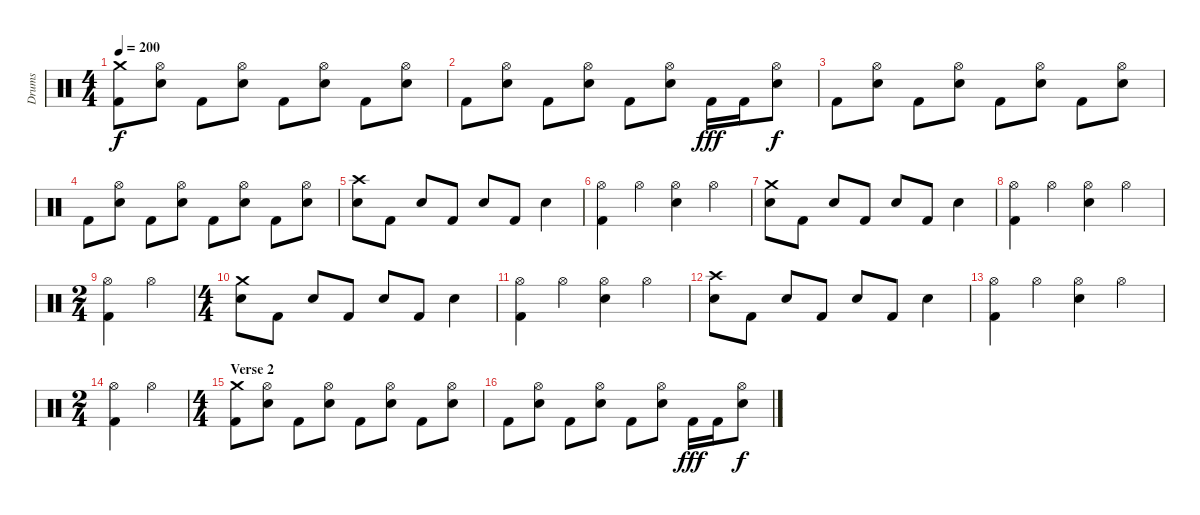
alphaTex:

\track ("Drums" "Drums") {instrument percussion}
\staff {score}
\articulation defaults
\ts (4 4)
\tempo 200
\clef neutral
\ks c
("Crash medium (hit)" "Kick (hit) 2").8{dy f} ("Hi-Hat (open)" "Snare (hit) 2").8 "Kick (hit) 2".8 ("Hi-Hat (open)" "Snare (hit) 2").8 "Kick (hit) 2".8 ("Hi-Hat (open)" "Snare (hit) 2").8 "Kick (hit) 2".8 ("Hi-Hat (open)" "Snare (hit) 2").8 |
"Kick (hit) 2".8 ("Hi-Hat (open)" "Snare (hit) 2").8 "Kick (hit) 2".8 ("Hi-Hat (open)" "Snare (hit) 2").8 "Kick (hit) 2".8 ("Hi-Hat (open)" "Snare (hit) 2").8 "Kick (hit) 2".16{dy fff} "Kick (hit) 2".16 ("Hi-Hat (open)" "Snare (hit) 2").8{dy f} |
"Kick (hit) 2".8 ("Hi-Hat (open)" "Snare (hit) 2").8 "Kick (hit) 2".8 ("Hi-Hat (open)" "Snare (hit) 2").8 "Kick (hit) 2".8 ("Hi-Hat (open)" "Snare (hit) 2").8 "Kick (hit) 2".8 ("Hi-Hat (open)" "Snare (hit) 2").8 |
"Kick (hit) 2".8 ("Hi-Hat (open)" "Snare (hit) 2").8 "Kick (hit) 2".8 ("Hi-Hat (open)" "Snare (hit) 2").8 "Kick (hit) 2".8 ("Hi-Hat (open)" "Snare (hit) 2").8 "Kick (hit) 2".8 ("Hi-Hat (open)" "Snare (hit) 2").8 |
("Crash high (hit)" "Snare (hit) 2").8 "Kick (hit) 2".8 "Snare (hit) 2".8 "Kick (hit) 2".8 "Snare (hit) 2".8 "Kick (hit) 2".8 "Snare (hit) 2".4 |
("Hi-Hat (open)" "Kick (hit) 2").4 "Hi-Hat (open)".4 ("Hi-Hat (open)" "Snare (hit) 2").4 "Hi-Hat (open)".4 |
("Crash medium (hit)" "Snare (hit) 2").8 "Kick (hit) 2".8 "Snare (hit) 2".8 "Kick (hit) 2".8 "Snare (hit) 2".8 "Kick (hit) 2".8 "Snare (hit) 2".4 |
("Hi-Hat (open)" "Kick (hit) 2").4 "Hi-Hat (open)".4 ("Hi-Hat (open)" "Snare (hit) 2").4 "Hi-Hat (open)".4 |
\ts (2 4)
("Hi-Hat (open)" "Kick (hit) 2").4 "Hi-Hat (open)".4 |
\ts (4 4)
("Crash medium (hit)" "Snare (hit) 2").8 "Kick (hit) 2".8 "Snare (hit) 2".8 "Kick (hit) 2".8 "Snare (hit) 2".8 "Kick (hit) 2".8 "Snare (hit) 2".4 |
("Hi-Hat (open)" "Kick (hit) 2").4 "Hi-Hat (open)".4 ("Hi-Hat (open)" "Snare (hit) 2").4 "Hi-Hat (open)".4 |
("Crash high (hit)" "Snare (hit) 2").8 "Kick (hit) 2".8 "Snare (hit) 2".8 "Kick (hit) 2".8 "Snare (hit) 2".8 "Kick (hit) 2".8 "Snare (hit) 2".4 |
("Hi-Hat (open)" "Kick (hit) 2").4 "Hi-Hat (open)".4 ("Hi-Hat (open)" "Snare (hit) 2").4 "Hi-Hat (open)".4 |
\ts (2 4)
("Hi-Hat (open)" "Kick (hit) 2").4 "Hi-Hat (open)".4 |
\ts (4 4)
\section ("" "Verse 2")
("Crash medium (hit)" "Kick (hit) 2").8 ("Hi-Hat (open)" "Snare (hit) 2").8 "Kick (hit) 2".8 ("Hi-Hat (open)" "Snare (hit) 2").8 "Kick (hit) 2".8 ("Hi-Hat (open)" "Snare (hit) 2").8 "Kick (hit) 2".8 ("Hi-Hat (open)" "Snare (hit) 2").8 |
"Kick (hit) 2".8 ("Hi-Hat (open)" "Snare (hit) 2").8 "Kick (hit) 2".8 ("Hi-Hat (open)" "Snare (hit) 2").8 "Kick (hit) 2".8 ("Hi-Hat (open)" "Snare (hit) 2").8 "Kick (hit) 2".16{dy fff} "Kick (hit) 2".16 ("Hi-Hat (open)" "Snare (hit) 2").8{dy f}
